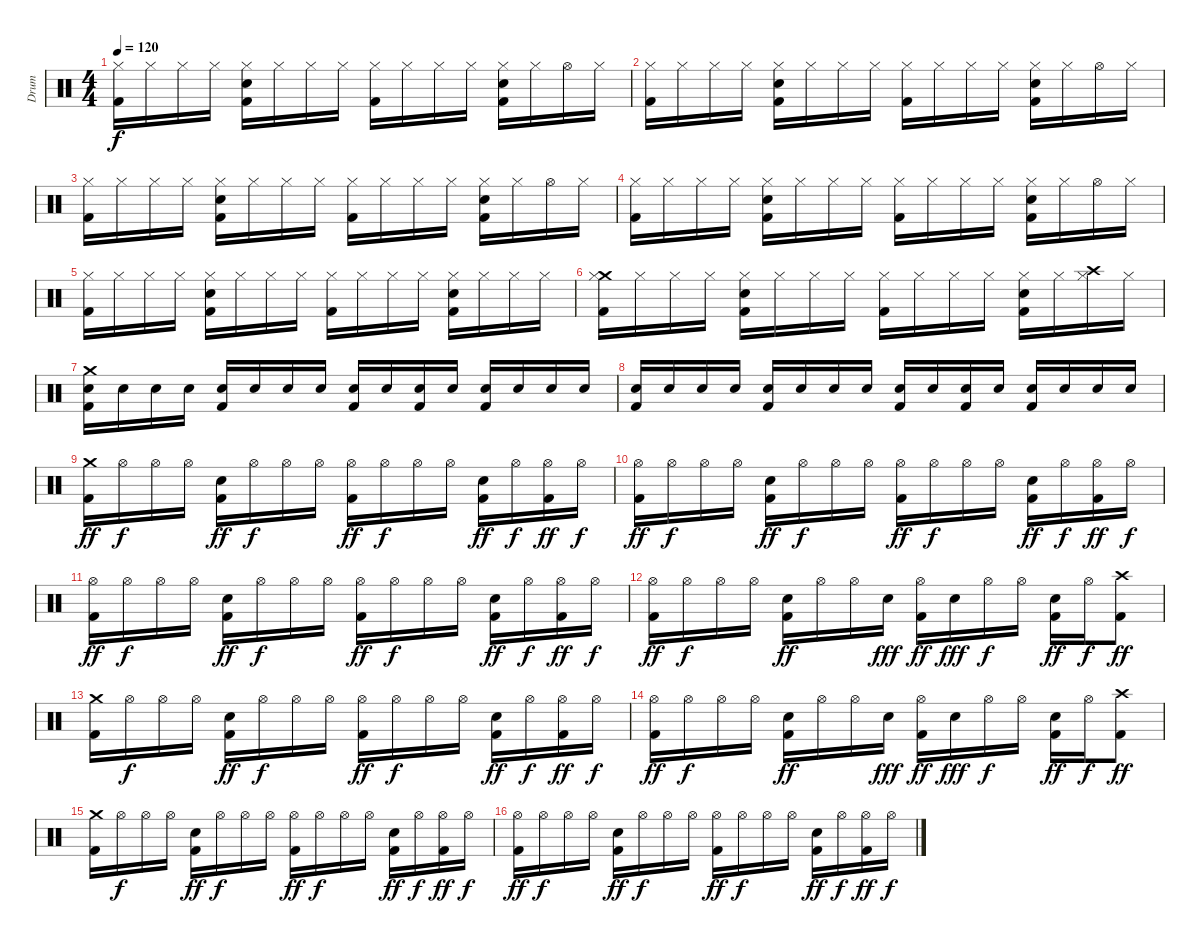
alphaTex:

\track ("Drum" "Drum") {instrument percussion}
\staff {score}
\articulation defaults
\ts (4 4)
\tempo 120
\clef neutral
\ks c
("Hi-Hat (closed)" "Kick (hit) 2").16{dy f} "Hi-Hat (closed)".16 "Hi-Hat (closed)".16 "Hi-Hat (closed)".16 ("Hi-Hat (closed)" "Kick (hit) 2" "Electric Snare (hit)").16 "Hi-Hat (closed)".16 "Hi-Hat (closed)".16 "Hi-Hat (closed)".16 ("Hi-Hat (closed)" "Kick (hit) 2").16 "Hi-Hat (closed)".16 "Hi-Hat (closed)".16 "Hi-Hat (closed)".16 ("Hi-Hat (closed)" "Kick (hit) 2" "Electric Snare (hit)").16 "Hi-Hat (closed)".16 "Hi-Hat (open)".16 "Hi-Hat (closed)".16 |
("Hi-Hat (closed)" "Kick (hit) 2").16 "Hi-Hat (closed)".16 "Hi-Hat (closed)".16 "Hi-Hat (closed)".16 ("Hi-Hat (closed)" "Kick (hit) 2" "Electric Snare (hit)").16 "Hi-Hat (closed)".16 "Hi-Hat (closed)".16 "Hi-Hat (closed)".16 ("Hi-Hat (closed)" "Kick (hit) 2").16 "Hi-Hat (closed)".16 "Hi-Hat (closed)".16 "Hi-Hat (closed)".16 ("Hi-Hat (closed)" "Kick (hit) 2" "Electric Snare (hit)").16 "Hi-Hat (closed)".16 "Hi-Hat (open)".16 "Hi-Hat (closed)".16 |
("Hi-Hat (closed)" "Kick (hit) 2").16 "Hi-Hat (closed)".16 "Hi-Hat (closed)".16 "Hi-Hat (closed)".16 ("Hi-Hat (closed)" "Kick (hit) 2" "Electric Snare (hit)").16 "Hi-Hat (closed)".16 "Hi-Hat (closed)".16 "Hi-Hat (closed)".16 ("Hi-Hat (closed)" "Kick (hit) 2").16 "Hi-Hat (closed)".16 "Hi-Hat (closed)".16 "Hi-Hat (closed)".16 ("Hi-Hat (closed)" "Kick (hit) 2" "Electric Snare (hit)").16 "Hi-Hat (closed)".16 "Hi-Hat (open)".16 "Hi-Hat (closed)".16 |
("Hi-Hat (closed)" "Kick (hit) 2").16 "Hi-Hat (closed)".16 "Hi-Hat (closed)".16 "Hi-Hat (closed)".16 ("Hi-Hat (closed)" "Kick (hit) 2" "Electric Snare (hit)").16 "Hi-Hat (closed)".16 "Hi-Hat (closed)".16 "Hi-Hat (closed)".16 ("Hi-Hat (closed)" "Kick (hit) 2").16 "Hi-Hat (closed)".16 "Hi-Hat (closed)".16 "Hi-Hat (closed)".16 ("Hi-Hat (closed)" "Kick (hit) 2" "Electric Snare (hit)").16 "Hi-Hat (closed)".16 "Hi-Hat (open)".16 "Hi-Hat (closed)".16 |
("Hi-Hat (closed)" "Kick (hit) 2").16 "Hi-Hat (closed)".16 "Hi-Hat (closed)".16 "Hi-Hat (closed)".16 ("Hi-Hat (closed)" "Kick (hit) 2" "Electric Snare (hit)").16 "Hi-Hat (closed)".16 "Hi-Hat (closed)".16 "Hi-Hat (closed)".16 ("Hi-Hat (closed)" "Kick (hit) 2").16 "Hi-Hat (closed)".16 "Hi-Hat (closed)".16 "Hi-Hat (closed)".16 ("Hi-Hat (closed)" "Kick (hit) 2" "Electric Snare (hit)").16 "Hi-Hat (closed)".16 "Hi-Hat (closed)".16 "Hi-Hat (closed)".16 |
("Crash medium (hit)" "Hi-Hat (closed)" "Kick (hit) 2").16 "Hi-Hat (closed)".16 "Hi-Hat (closed)".16 "Hi-Hat (closed)".16 ("Hi-Hat (closed)" "Kick (hit) 2" "Electric Snare (hit)").16 "Hi-Hat (closed)".16 "Hi-Hat (closed)".16 "Hi-Hat (closed)".16 ("Hi-Hat (closed)" "Kick (hit) 2").16 "Hi-Hat (closed)".16 "Hi-Hat (closed)".16 "Hi-Hat (closed)".16 ("Hi-Hat (closed)" "Kick (hit) 2" "Electric Snare (hit)").16 "Hi-Hat (closed)".16 ("Crash high (hit)" "Hi-Hat (closed)").16 "Hi-Hat (closed)".16 |
("Electric Snare (hit)" "Crash medium (hit)" "Kick (hit) 2").16{volume 16} "Electric Snare (hit)".16 "Electric Snare (hit)".16 "Electric Snare (hit)".16 ("Electric Snare (hit)" "Kick (hit) 2").16 "Electric Snare (hit)".16 "Electric Snare (hit)".16 "Electric Snare (hit)".16 ("Electric Snare (hit)" "Kick (hit) 2").16 "Electric Snare (hit)".16 ("Electric Snare (hit)" "Kick (hit) 2").16 "Electric Snare (hit)".16 ("Electric Snare (hit)" "Kick (hit) 2").16 "Electric Snare (hit)".16 "Electric Snare (hit)".16 "Electric Snare (hit)".16 |
("Electric Snare (hit)" "Kick (hit) 2").16 "Electric Snare (hit)".16 "Electric Snare (hit)".16 "Electric Snare (hit)".16 ("Electric Snare (hit)" "Kick (hit) 2").16 "Electric Snare (hit)".16 "Electric Snare (hit)".16 "Electric Snare (hit)".16 ("Electric Snare (hit)" "Kick (hit) 2").16 "Electric Snare (hit)".16 ("Electric Snare (hit)" "Kick (hit) 2").16 "Electric Snare (hit)".16 ("Electric Snare (hit)" "Kick (hit) 2").16 "Electric Snare (hit)".16 "Electric Snare (hit)".16 "Electric Snare (hit)".16 |
("Crash medium (hit)" "Kick (hit) 2").16{dy ff volume 13} "Hi-Hat (open)".16{dy f} "Hi-Hat (open)".16 "Hi-Hat (open)".16 ("Kick (hit) 2" "Electric Snare (hit)").16{dy ff} "Hi-Hat (open)".16{dy f} "Hi-Hat (open)".16 "Hi-Hat (open)".16 ("Hi-Hat (open)" "Kick (hit) 2").16{dy ff} "Hi-Hat (open)".16{dy f} "Hi-Hat (open)".16 "Hi-Hat (open)".16 ("Kick (hit) 2" "Electric Snare (hit)").16{dy ff} "Hi-Hat (open)".16{dy f} ("Hi-Hat (open)" "Kick (hit) 2").16{dy ff} "Hi-Hat (open)".16{dy f} |
("Hi-Hat (open)" "Kick (hit) 2").16{dy ff} "Hi-Hat (open)".16{dy f} "Hi-Hat (open)".16 "Hi-Hat (open)".16 ("Kick (hit) 2" "Electric Snare (hit)").16{dy ff} "Hi-Hat (open)".16{dy f} "Hi-Hat (open)".16 "Hi-Hat (open)".16 ("Hi-Hat (open)" "Kick (hit) 2").16{dy ff} "Hi-Hat (open)".16{dy f} "Hi-Hat (open)".16 "Hi-Hat (open)".16 ("Kick (hit) 2" "Electric Snare (hit)").16{dy ff} "Hi-Hat (open)".16{dy f} ("Hi-Hat (open)" "Kick (hit) 2").16{dy ff} "Hi-Hat (open)".16{dy f} |
("Hi-Hat (open)" "Kick (hit) 2").16{dy ff} "Hi-Hat (open)".16{dy f} "Hi-Hat (open)".16 "Hi-Hat (open)".16 ("Kick (hit) 2" "Electric Snare (hit)").16{dy ff} "Hi-Hat (open)".16{dy f} "Hi-Hat (open)".16 "Hi-Hat (open)".16 ("Hi-Hat (open)" "Kick (hit) 2").16{dy ff} "Hi-Hat (open)".16{dy f} "Hi-Hat (open)".16 "Hi-Hat (open)".16 ("Kick (hit) 2" "Electric Snare (hit)").16{dy ff} "Hi-Hat (open)".16{dy f} ("Hi-Hat (open)" "Kick (hit) 2").16{dy ff} "Hi-Hat (open)".16{dy f} |
("Hi-Hat (open)" "Kick (hit) 2").16{dy ff} "Hi-Hat (open)".16{dy f} "Hi-Hat (open)".16 "Hi-Hat (open)".16 ("Kick (hit) 2" "Electric Snare (hit)").16{dy ff} "Hi-Hat (open)".16 "Hi-Hat (open)".16 "Electric Snare (hit)".16{dy fff} ("Hi-Hat (open)" "Kick (hit) 2").16{dy ff} "Electric Snare (hit)".16{dy fff} "Hi-Hat (open)".16{dy f} "Hi-Hat (open)".16 ("Kick (hit) 2" "Electric Snare (hit)").16{dy ff} "Hi-Hat (open)".16{dy f} ("Crash high (hit)" "Kick (hit) 2").8{dy ff} |
("Crash medium (hit)" "Kick (hit) 2").16 "Hi-Hat (open)".16{dy f} "Hi-Hat (open)".16 "Hi-Hat (open)".16 ("Kick (hit) 2" "Electric Snare (hit)").16{dy ff} "Hi-Hat (open)".16{dy f} "Hi-Hat (open)".16 "Hi-Hat (open)".16 ("Hi-Hat (open)" "Kick (hit) 2").16{dy ff} "Hi-Hat (open)".16{dy f} "Hi-Hat (open)".16 "Hi-Hat (open)".16 ("Kick (hit) 2" "Electric Snare (hit)").16{dy ff} "Hi-Hat (open)".16{dy f} ("Hi-Hat (open)" "Kick (hit) 2").16{dy ff} "Hi-Hat (open)".16{dy f} |
("Hi-Hat (open)" "Kick (hit) 2").16{dy ff} "Hi-Hat (open)".16{dy f} "Hi-Hat (open)".16 "Hi-Hat (open)".16 ("Kick (hit) 2" "Electric Snare (hit)").16{dy ff} "Hi-Hat (open)".16 "Hi-Hat (open)".16 "Electric Snare (hit)".16{dy fff} ("Hi-Hat (open)" "Kick (hit) 2").16{dy ff} "Electric Snare (hit)".16{dy fff} "Hi-Hat (open)".16{dy f} "Hi-Hat (open)".16 ("Kick (hit) 2" "Electric Snare (hit)").16{dy ff} "Hi-Hat (open)".16{dy f} ("Crash high (hit)" "Kick (hit) 2").8{dy ff} |
("Crash medium (hit)" "Kick (hit) 2").16 "Hi-Hat (open)".16{dy f} "Hi-Hat (open)".16 "Hi-Hat (open)".16 ("Kick (hit) 2" "Electric Snare (hit)").16{dy ff} "Hi-Hat (open)".16{dy f} "Hi-Hat (open)".16 "Hi-Hat (open)".16 ("Hi-Hat (open)" "Kick (hit) 2").16{dy ff} "Hi-Hat (open)".16{dy f} "Hi-Hat (open)".16 "Hi-Hat (open)".16 ("Kick (hit) 2" "Electric Snare (hit)").16{dy ff} "Hi-Hat (open)".16{dy f} ("Hi-Hat (open)" "Kick (hit) 2").16{dy ff} "Hi-Hat (open)".16{dy f} |
("Hi-Hat (open)" "Kick (hit) 2").16{dy ff} "Hi-Hat (open)".16{dy f} "Hi-Hat (open)".16 "Hi-Hat (open)".16 ("Kick (hit) 2" "Electric Snare (hit)").16{dy ff} "Hi-Hat (open)".16{dy f} "Hi-Hat (open)".16 "Hi-Hat (open)".16 ("Hi-Hat (open)" "Kick (hit) 2").16{dy ff} "Hi-Hat (open)".16{dy f} "Hi-Hat (open)".16 "Hi-Hat (open)".16 ("Kick (hit) 2" "Electric Snare (hit)").16{dy ff} "Hi-Hat (open)".16{dy f} ("Hi-Hat (open)" "Kick (hit) 2").16{dy ff} "Hi-Hat (open)".16{dy f}
